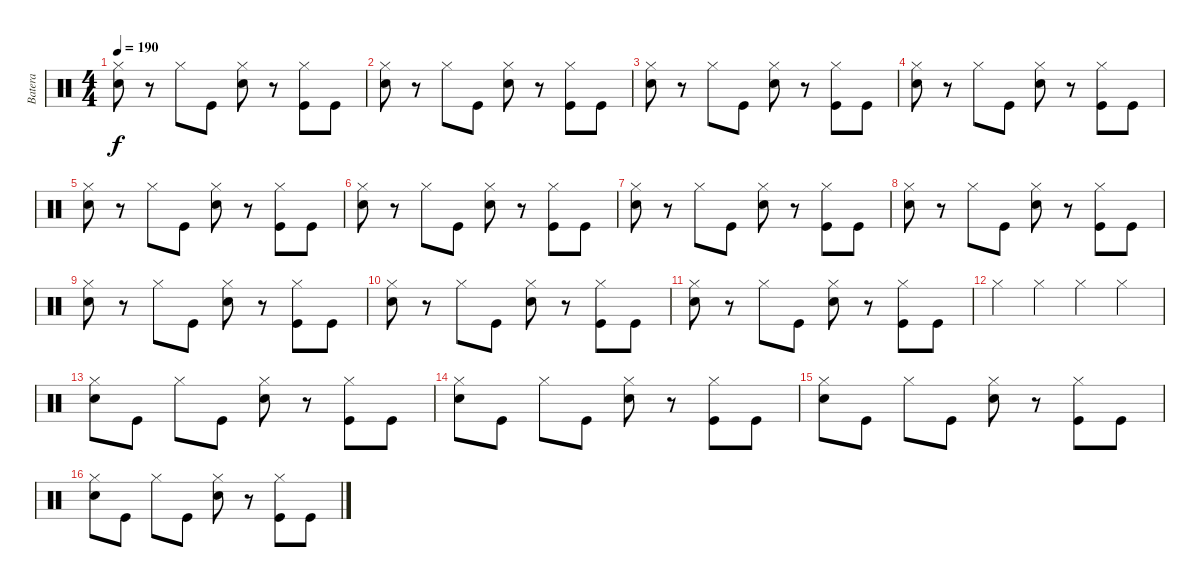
\track ("Batera" "Batera") {instrument percussion}
\staff {score}
\articulation defaults
\ts (4 4)
\tempo 190
\clef neutral
\ks c
("Hi-Hat (closed)" "Snare (hit) 2").8{dy f} r.8 "Hi-Hat (closed)".8 "Kick (hit)".8 ("Hi-Hat (closed)" "Snare (hit) 2").8 r.8 ("Hi-Hat (closed)" "Kick (hit)").8 "Kick (hit)".8 |
("Hi-Hat (closed)" "Snare (hit) 2").8 r.8 "Hi-Hat (closed)".8 "Kick (hit)".8 ("Hi-Hat (closed)" "Snare (hit) 2").8 r.8 ("Hi-Hat (closed)" "Kick (hit)").8 "Kick (hit)".8 |
("Hi-Hat (closed)" "Snare (hit) 2").8 r.8 "Hi-Hat (closed)".8 "Kick (hit)".8 ("Hi-Hat (closed)" "Snare (hit) 2").8 r.8 ("Hi-Hat (closed)" "Kick (hit)").8 "Kick (hit)".8 |
("Hi-Hat (closed)" "Snare (hit) 2").8 r.8 "Hi-Hat (closed)".8 "Kick (hit)".8 ("Hi-Hat (closed)" "Snare (hit) 2").8 r.8 ("Hi-Hat (closed)" "Kick (hit)").8 "Kick (hit)".8 |
("Hi-Hat (closed)" "Snare (hit) 2").8 r.8 "Hi-Hat (closed)".8 "Kick (hit)".8 ("Hi-Hat (closed)" "Snare (hit) 2").8 r.8 ("Hi-Hat (closed)" "Kick (hit)").8 "Kick (hit)".8 |
("Hi-Hat (closed)" "Snare (hit) 2").8 r.8 "Hi-Hat (closed)".8 "Kick (hit)".8 ("Hi-Hat (closed)" "Snare (hit) 2").8 r.8 ("Hi-Hat (closed)" "Kick (hit)").8 "Kick (hit)".8 |
("Hi-Hat (closed)" "Snare (hit) 2").8 r.8 "Hi-Hat (closed)".8 "Kick (hit)".8 ("Hi-Hat (closed)" "Snare (hit) 2").8 r.8 ("Hi-Hat (closed)" "Kick (hit)").8 "Kick (hit)".8 |
("Hi-Hat (closed)" "Snare (hit) 2").8 r.8 "Hi-Hat (closed)".8 "Kick (hit)".8 ("Hi-Hat (closed)" "Snare (hit) 2").8 r.8 ("Hi-Hat (closed)" "Kick (hit)").8 "Kick (hit)".8 |
("Hi-Hat (closed)" "Snare (hit) 2").8 r.8 "Hi-Hat (closed)".8 "Kick (hit)".8 ("Hi-Hat (closed)" "Snare (hit) 2").8 r.8 ("Hi-Hat (closed)" "Kick (hit)").8 "Kick (hit)".8 |
("Hi-Hat (closed)" "Snare (hit) 2").8 r.8 "Hi-Hat (closed)".8 "Kick (hit)".8 ("Hi-Hat (closed)" "Snare (hit) 2").8 r.8 ("Hi-Hat (closed)" "Kick (hit)").8 "Kick (hit)".8 |
("Hi-Hat (closed)" "Snare (hit) 2").8 r.8 "Hi-Hat (closed)".8 "Kick (hit)".8 ("Hi-Hat (closed)" "Snare (hit) 2").8 r.8 ("Hi-Hat (closed)" "Kick (hit)").8 "Kick (hit)".8 |
"Hi-Hat (closed)".4 "Hi-Hat (closed)".4 "Hi-Hat (closed)".4 "Hi-Hat (closed)".4 |
("Hi-Hat (closed)" "Snare (hit) 2").8 "Kick (hit)".8 "Hi-Hat (closed)".8 "Kick (hit)".8 ("Hi-Hat (closed)" "Snare (hit) 2").8 r.8 ("Hi-Hat (closed)" "Kick (hit)").8 "Kick (hit)".8 |
("Hi-Hat (closed)" "Snare (hit) 2").8 "Kick (hit)".8 "Hi-Hat (closed)".8 "Kick (hit)".8 ("Hi-Hat (closed)" "Snare (hit) 2").8 r.8 ("Hi-Hat (closed)" "Kick (hit)").8 "Kick (hit)".8 |
("Hi-Hat (closed)" "Snare (hit) 2").8 "Kick (hit)".8 "Hi-Hat (closed)".8 "Kick (hit)".8 ("Hi-Hat (closed)" "Snare (hit) 2").8 r.8 ("Hi-Hat (closed)" "Kick (hit)").8 "Kick (hit)".8 |
("Hi-Hat (closed)" "Snare (hit) 2").8 "Kick (hit)".8 "Hi-Hat (closed)".8 "Kick (hit)".8 ("Hi-Hat (closed)" "Snare (hit) 2").8 r.8 ("Hi-Hat (closed)" "Kick (hit)").8 "Kick (hit)".8
